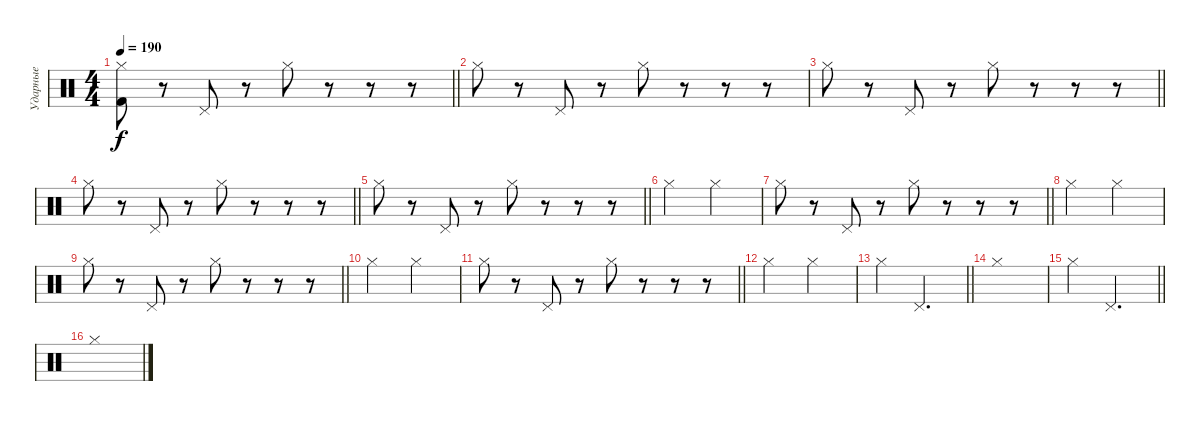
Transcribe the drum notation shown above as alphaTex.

\track ("Ударные" "Ударные") {instrument percussion}
\staff {score}
\articulation defaults
\ts (4 4)
\tempo 190
\clef neutral
\barLineRight lightlight
\ks c
("Hi-Hat (closed)" "Kick (hit) 2").8{dy f} r.8 "Pedal Hi-Hat (hit)".8 r.8 "Hi-Hat (closed)".8 r.8 r.8 r.8 |
"Hi-Hat (closed)".8 r.8 "Pedal Hi-Hat (hit)".8 r.8 "Hi-Hat (closed)".8 r.8 r.8 r.8 |
\barLineRight lightlight "Hi-Hat (closed)".8
r.8 "Pedal Hi-Hat (hit)".8 r.8 "Hi-Hat (closed)".8 r.8 r.8 r.8 |
\barLineRight lightlight "Hi-Hat (closed)".8
r.8 "Pedal Hi-Hat (hit)".8 r.8 "Hi-Hat (closed)".8 r.8 r.8 r.8 |
\section ("" "")
\barLineRight lightlight "Hi-Hat (closed)".8
r.8 "Pedal Hi-Hat (hit)".8 r.8 "Hi-Hat (closed)".8 r.8 r.8 r.8 |
"Hi-Hat (closed)".2 "Hi-Hat (closed)".2 |
\barLineRight lightlight "Hi-Hat (closed)".8
r.8 "Pedal Hi-Hat (hit)".8 r.8 "Hi-Hat (closed)".8 r.8 r.8 r.8 |
"Hi-Hat (closed)".2 "Hi-Hat (closed)".2 |
\barLineRight lightlight "Hi-Hat (closed)".8
r.8 "Pedal Hi-Hat (hit)".8 r.8 "Hi-Hat (closed)".8 r.8 r.8 r.8 |
"Hi-Hat (closed)".2 "Hi-Hat (closed)".2 |
\barLineRight lightlight "Hi-Hat (closed)".8
r.8 "Pedal Hi-Hat (hit)".8 r.8 "Hi-Hat (closed)".8 r.8 r.8 r.8 |
"Hi-Hat (closed)".2 "Hi-Hat (closed)".2 |
\barLineRight lightlight "Hi-Hat (closed)".4 "Pedal Hi-Hat (hit)".2{d}
|
"Hi-Hat (closed)".1 |
\barLineRight lightlight "Hi-Hat (closed)".4 "Pedal Hi-Hat (hit)".2{d}
|
"Hi-Hat (closed)".1
